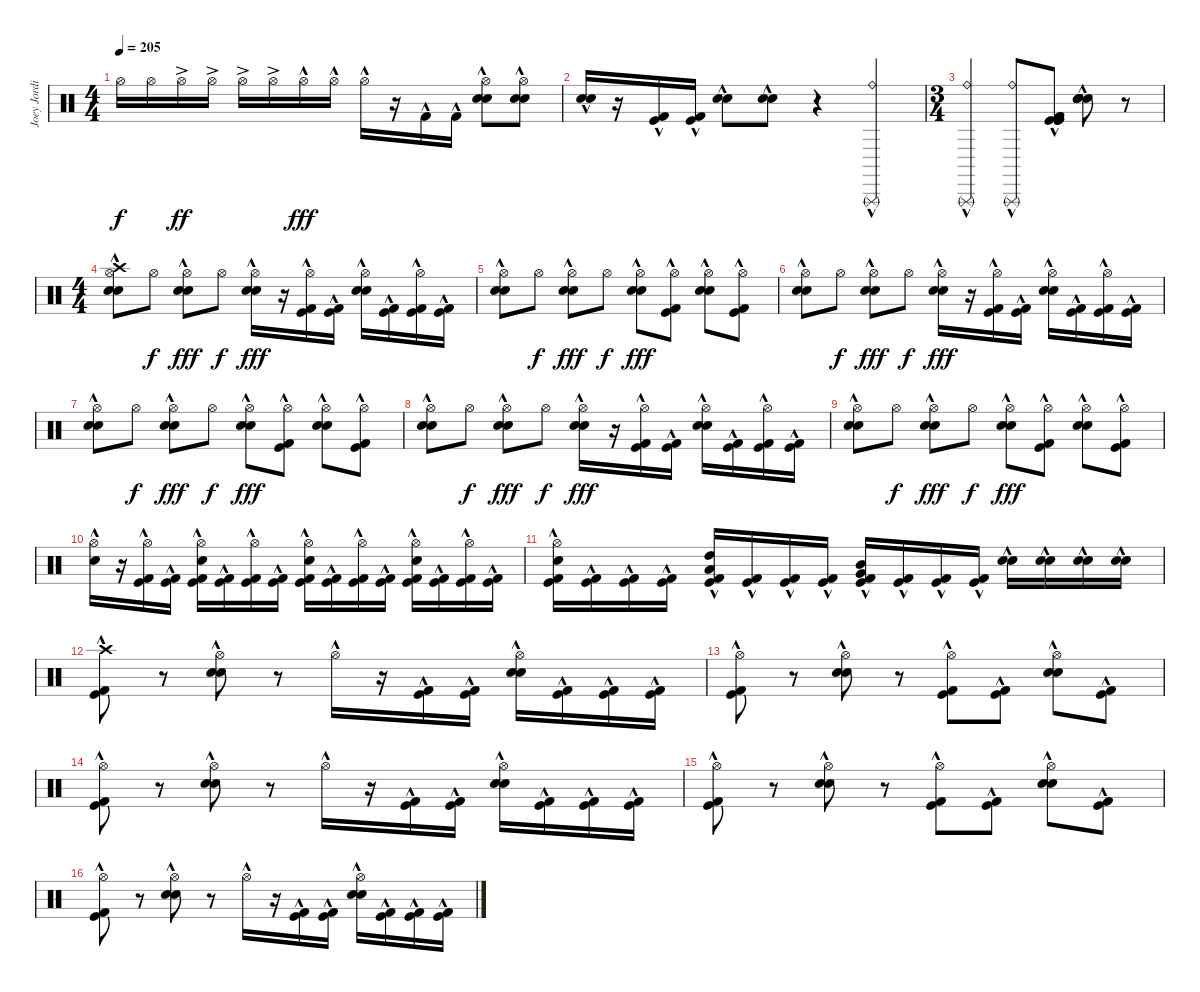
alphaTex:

\track ("Joey Jordison" "Joey Jordi") {instrument percussion}
\staff {score}
\articulation defaults
\ts (4 4)
\tempo 205
\clef neutral
\ks c "Hi-Hat (open)".16{dy f volume 4} "Hi-Hat (open)".16 "Hi-Hat (open)"{ac}.16{dy ff volume 5} "Hi-Hat (open)"{ac}.16 "Hi-Hat (open)"{ac}.16{volume 7} "Hi-Hat (open)"{ac}.16 "Hi-Hat (open)"{hac}.16{dy fff volume 9} "Hi-Hat (open)"{hac}.16 "Hi-Hat (open)"{hac}.16{volume 13}
r.16 "Kick (hit) 2"{hac}.16{volume 8} "Kick (hit) 2"{hac}.16 ("Electric Snare (hit)"{hac} "Hi-Hat (open)"{hac} "Electric Snare (hit)"{hac}).8 ("Electric Snare (hit)"{hac} "Hi-Hat (open)"{hac} "Electric Snare (hit)"{hac}).8 |
("Electric Snare (hit)"{hac} "Electric Snare (hit)"{hac}).16 r.16 ("Kick (hit)"{hac} "Kick (hit) 2"{hac}).16 ("Kick (hit)"{hac} "Kick (hit) 2"{hac}).16 ("Electric Snare (hit)"{hac} "Electric Snare (hit)"{hac}).8 ("Electric Snare (hit)"{hac} "Electric Snare (hit)"{hac}).8 r.4 ("Triangle (rnute)"{hac} "Ride (bell)"{hac}).4 |
\ts (3 4)
("Triangle (rnute)"{hac} "Ride (bell)"{hac}).4 ("Triangle (rnute)"{hac} "Ride (bell)"{hac}).8 ("Kick (hit)"{hac} "Kick (hit)"{hac} "Kick (hit) 2"{hac} "Kick (hit) 2"{hac} "Kick (hit)"{hac}).8 ("Electric Snare (hit)"{hac} "Electric Snare (hit)"{hac} "Electric Snare (hit)"{hac} "Electric Snare (hit)"{hac} "Electric Snare (hit)"{hac}).8 r.8 |
\ts (4 4)
("Crash high (hit)"{hac} "Hi-Hat (open)"{hac} "Electric Snare (hit)"{hac} "Electric Snare (hit)"{hac}).8 "Hi-Hat (open)".8{dy f} ("Hi-Hat (open)"{hac} "Electric Snare (hit)"{hac} "Electric Snare (hit)"{hac}).8{dy fff} "Hi-Hat (open)".8{dy f} ("Hi-Hat (open)"{hac} "Electric Snare (hit)"{hac} "Electric Snare (hit)"{hac}).16{dy fff} r.16 ("Hi-Hat (open)" "Kick (hit)"{hac} "Kick (hit) 2"{hac}).16 ("Kick (hit)"{hac} "Kick (hit) 2"{hac}).16 ("Hi-Hat (open)"{hac} "Electric Snare (hit)"{hac} "Electric Snare (hit)"{hac}).16 ("Kick (hit)"{hac} "Kick (hit) 2"{hac}).16 ("Hi-Hat (open)" "Kick (hit)"{hac} "Kick (hit) 2"{hac}).16 ("Kick (hit)"{hac} "Kick (hit) 2"{hac}).16 |
("Hi-Hat (open)"{hac} "Electric Snare (hit)"{hac} "Electric Snare (hit)"{hac}).8 "Hi-Hat (open)".8{dy f} ("Hi-Hat (open)"{hac} "Electric Snare (hit)"{hac} "Electric Snare (hit)"{hac}).8{dy fff} "Hi-Hat (open)".8{dy f} ("Hi-Hat (open)"{hac} "Electric Snare (hit)"{hac} "Electric Snare (hit)"{hac}).8{dy fff} ("Hi-Hat (open)" "Kick (hit)"{hac} "Kick (hit) 2"{hac}).8 ("Hi-Hat (open)"{hac} "Electric Snare (hit)"{hac} "Electric Snare (hit)"{hac}).8 ("Hi-Hat (open)" "Kick (hit)"{hac} "Kick (hit) 2"{hac}).8 |
("Hi-Hat (open)"{hac} "Electric Snare (hit)"{hac} "Electric Snare (hit)"{hac}).8 "Hi-Hat (open)".8{dy f} ("Hi-Hat (open)"{hac} "Electric Snare (hit)"{hac} "Electric Snare (hit)"{hac}).8{dy fff} "Hi-Hat (open)".8{dy f} ("Hi-Hat (open)"{hac} "Electric Snare (hit)"{hac} "Electric Snare (hit)"{hac}).16{dy fff} r.16 ("Hi-Hat (open)" "Kick (hit)"{hac} "Kick (hit) 2"{hac}).16 ("Kick (hit)"{hac} "Kick (hit) 2"{hac}).16 ("Hi-Hat (open)"{hac} "Electric Snare (hit)"{hac} "Electric Snare (hit)"{hac}).16 ("Kick (hit)"{hac} "Kick (hit) 2"{hac}).16 ("Hi-Hat (open)" "Kick (hit)"{hac} "Kick (hit) 2"{hac}).16 ("Kick (hit)"{hac} "Kick (hit) 2"{hac}).16 |
("Hi-Hat (open)"{hac} "Electric Snare (hit)"{hac} "Electric Snare (hit)"{hac}).8 "Hi-Hat (open)".8{dy f} ("Hi-Hat (open)"{hac} "Electric Snare (hit)"{hac} "Electric Snare (hit)"{hac}).8{dy fff} "Hi-Hat (open)".8{dy f} ("Hi-Hat (open)"{hac} "Electric Snare (hit)"{hac} "Electric Snare (hit)"{hac}).8{dy fff} ("Hi-Hat (open)" "Kick (hit)"{hac} "Kick (hit) 2"{hac}).8 ("Hi-Hat (open)"{hac} "Electric Snare (hit)"{hac} "Electric Snare (hit)"{hac}).8 ("Hi-Hat (open)" "Kick (hit)"{hac} "Kick (hit) 2"{hac}).8 |
("Hi-Hat (open)"{hac} "Electric Snare (hit)"{hac} "Electric Snare (hit)"{hac}).8 "Hi-Hat (open)".8{dy f} ("Hi-Hat (open)"{hac} "Electric Snare (hit)"{hac} "Electric Snare (hit)"{hac}).8{dy fff} "Hi-Hat (open)".8{dy f} ("Hi-Hat (open)"{hac} "Electric Snare (hit)"{hac} "Electric Snare (hit)"{hac}).16{dy fff} r.16 ("Hi-Hat (open)" "Kick (hit)"{hac} "Kick (hit) 2"{hac}).16 ("Kick (hit)"{hac} "Kick (hit) 2"{hac}).16 ("Hi-Hat (open)"{hac} "Electric Snare (hit)"{hac} "Electric Snare (hit)"{hac}).16 ("Kick (hit)"{hac} "Kick (hit) 2"{hac}).16 ("Hi-Hat (open)" "Kick (hit)"{hac} "Kick (hit) 2"{hac}).16 ("Kick (hit)"{hac} "Kick (hit) 2"{hac}).16 |
("Hi-Hat (open)"{hac} "Electric Snare (hit)"{hac} "Electric Snare (hit)"{hac}).8 "Hi-Hat (open)".8{dy f} ("Hi-Hat (open)"{hac} "Electric Snare (hit)"{hac} "Electric Snare (hit)"{hac}).8{dy fff} "Hi-Hat (open)".8{dy f} ("Hi-Hat (open)"{hac} "Electric Snare (hit)"{hac} "Electric Snare (hit)"{hac}).8{dy fff} ("Hi-Hat (open)" "Kick (hit)"{hac} "Kick (hit) 2"{hac}).8 ("Hi-Hat (open)"{hac} "Electric Snare (hit)"{hac} "Electric Snare (hit)"{hac}).8 ("Hi-Hat (open)" "Kick (hit)"{hac} "Kick (hit) 2"{hac}).8 |
("Hi-Hat (open)"{hac} "Electric Snare (hit)"{hac}).16 r.16 ("Hi-Hat (open)" "Kick (hit)"{hac} "Kick (hit) 2"{hac}).16 ("Kick (hit)"{hac} "Kick (hit) 2"{hac}).16 ("Hi-Hat (open)"{hac} "Electric Snare (hit)"{hac} "Kick (hit)"{hac} "Kick (hit) 2"{hac}).16 ("Kick (hit)"{hac} "Kick (hit) 2"{hac}).16 ("Hi-Hat (open)" "Kick (hit)"{hac} "Kick (hit) 2"{hac}).16 ("Kick (hit)"{hac} "Kick (hit) 2"{hac}).16 ("Hi-Hat (open)"{hac} "Electric Snare (hit)"{hac} "Kick (hit)"{hac} "Kick (hit) 2"{hac}).16 ("Kick (hit)"{hac} "Kick (hit) 2"{hac}).16 ("Hi-Hat (open)" "Kick (hit)"{hac} "Kick (hit) 2"{hac}).16 ("Kick (hit)"{hac} "Kick (hit) 2"{hac}).16 ("Hi-Hat (open)"{hac} "Electric Snare (hit)"{hac} "Kick (hit)"{hac} "Kick (hit) 2"{hac}).16 ("Kick (hit)"{hac} "Kick (hit) 2"{hac}).16 ("Hi-Hat (open)" "Kick (hit)"{hac} "Kick (hit) 2"{hac}).16 ("Kick (hit)"{hac} "Kick (hit) 2"{hac}).16 |
("Hi-Hat (open)"{hac} "Electric Snare (hit)"{hac} "Kick (hit)"{hac} "Kick (hit) 2"{hac}).16 ("Kick (hit)"{hac} "Kick (hit) 2"{hac}).16 ("Kick (hit)"{hac} "Kick (hit) 2"{hac}).16 ("Kick (hit)"{hac} "Kick (hit) 2"{hac}).16 ("High Tom (hit)"{hac} "Low Tom (hit)"{hac} "Kick (hit)"{hac} "Kick (hit) 2"{hac}).16 ("Kick (hit)"{hac} "Kick (hit) 2"{hac}).16 ("Kick (hit)"{hac} "Kick (hit) 2"{hac}).16 ("Kick (hit)"{hac} "Kick (hit) 2"{hac}).16 ("Mid Tom (hit)"{hac} "Very Low Tom (hit)"{hac} "Kick (hit)"{hac} "Kick (hit) 2"{hac}).16 ("Kick (hit)"{hac} "Kick (hit) 2"{hac}).16 ("Kick (hit)"{hac} "Kick (hit) 2"{hac}).16 ("Kick (hit)"{hac} "Kick (hit) 2"{hac}).16 ("Electric Snare (hit)"{hac} "Electric Snare (hit)"{hac}).16 ("Electric Snare (hit)"{hac} "Electric Snare (hit)"{hac}).16 ("Electric Snare (hit)"{hac} "Electric Snare (hit)"{hac}).16 ("Electric Snare (hit)"{hac} "Electric Snare (hit)"{hac}).16 |
("Crash high (hit)"{hac} "Kick (hit)"{hac} "Kick (hit) 2"{hac}).8 r.8 ("Hi-Hat (open)"{hac} "Electric Snare (hit)"{hac} "Electric Snare (hit)"{hac}).8 r.8 "Hi-Hat (open)"{hac}.16 r.16 ("Kick (hit)"{hac} "Kick (hit) 2"{hac}).16 ("Kick (hit)"{hac} "Kick (hit) 2"{hac}).16 ("Hi-Hat (open)"{hac} "Electric Snare (hit)"{hac} "Electric Snare (hit)"{hac}).16 ("Kick (hit)"{hac} "Kick (hit) 2"{hac}).16 ("Kick (hit)"{hac} "Kick (hit) 2"{hac}).16 ("Kick (hit)"{hac} "Kick (hit) 2"{hac}).16 |
("Hi-Hat (open)"{hac} "Kick (hit) 2"{hac} "Kick (hit)"{hac}).8 r.8 ("Hi-Hat (open)"{hac} "Electric Snare (hit)"{hac} "Electric Snare (hit)"{hac}).8 r.8 ("Hi-Hat (open)"{hac} "Kick (hit) 2"{hac} "Kick (hit)"{hac}).8 ("Kick (hit) 2"{hac} "Kick (hit)"{hac}).8 ("Hi-Hat (open)"{hac} "Electric Snare (hit)"{hac} "Electric Snare (hit)"{hac}).8 ("Kick (hit)"{hac} "Kick (hit) 2"{hac}).8 |
("Hi-Hat (open)" "Kick (hit)"{hac} "Kick (hit) 2"{hac}).8 r.8 ("Hi-Hat (open)"{hac} "Electric Snare (hit)"{hac} "Electric Snare (hit)"{hac}).8 r.8 "Hi-Hat (open)"{hac}.16 r.16 ("Kick (hit)"{hac} "Kick (hit) 2"{hac}).16 ("Kick (hit)"{hac} "Kick (hit) 2"{hac}).16 ("Hi-Hat (open)"{hac} "Electric Snare (hit)"{hac} "Electric Snare (hit)"{hac}).16 ("Kick (hit)"{hac} "Kick (hit) 2"{hac}).16 ("Kick (hit)"{hac} "Kick (hit) 2"{hac}).16 ("Kick (hit)"{hac} "Kick (hit) 2"{hac}).16 |
("Hi-Hat (open)"{hac} "Kick (hit) 2"{hac} "Kick (hit)"{hac}).8 r.8 ("Hi-Hat (open)"{hac} "Electric Snare (hit)"{hac} "Electric Snare (hit)"{hac}).8 r.8 ("Hi-Hat (open)"{hac} "Kick (hit) 2"{hac} "Kick (hit)"{hac}).8 ("Kick (hit) 2"{hac} "Kick (hit)"{hac}).8 ("Hi-Hat (open)"{hac} "Electric Snare (hit)"{hac} "Electric Snare (hit)"{hac}).8 ("Kick (hit)"{hac} "Kick (hit) 2"{hac}).8 |
("Hi-Hat (open)"{hac} "Kick (hit)"{hac} "Kick (hit) 2"{hac}).8 r.8 ("Hi-Hat (open)"{hac} "Electric Snare (hit)"{hac} "Electric Snare (hit)"{hac}).8 r.8 "Hi-Hat (open)"{hac}.16 r.16 ("Kick (hit)"{hac} "Kick (hit) 2"{hac}).16 ("Kick (hit)"{hac} "Kick (hit) 2"{hac}).16 ("Hi-Hat (open)"{hac} "Electric Snare (hit)"{hac} "Electric Snare (hit)"{hac}).16 ("Kick (hit)"{hac} "Kick (hit) 2"{hac}).16 ("Kick (hit)"{hac} "Kick (hit) 2"{hac}).16 ("Kick (hit)"{hac} "Kick (hit) 2"{hac}).16
